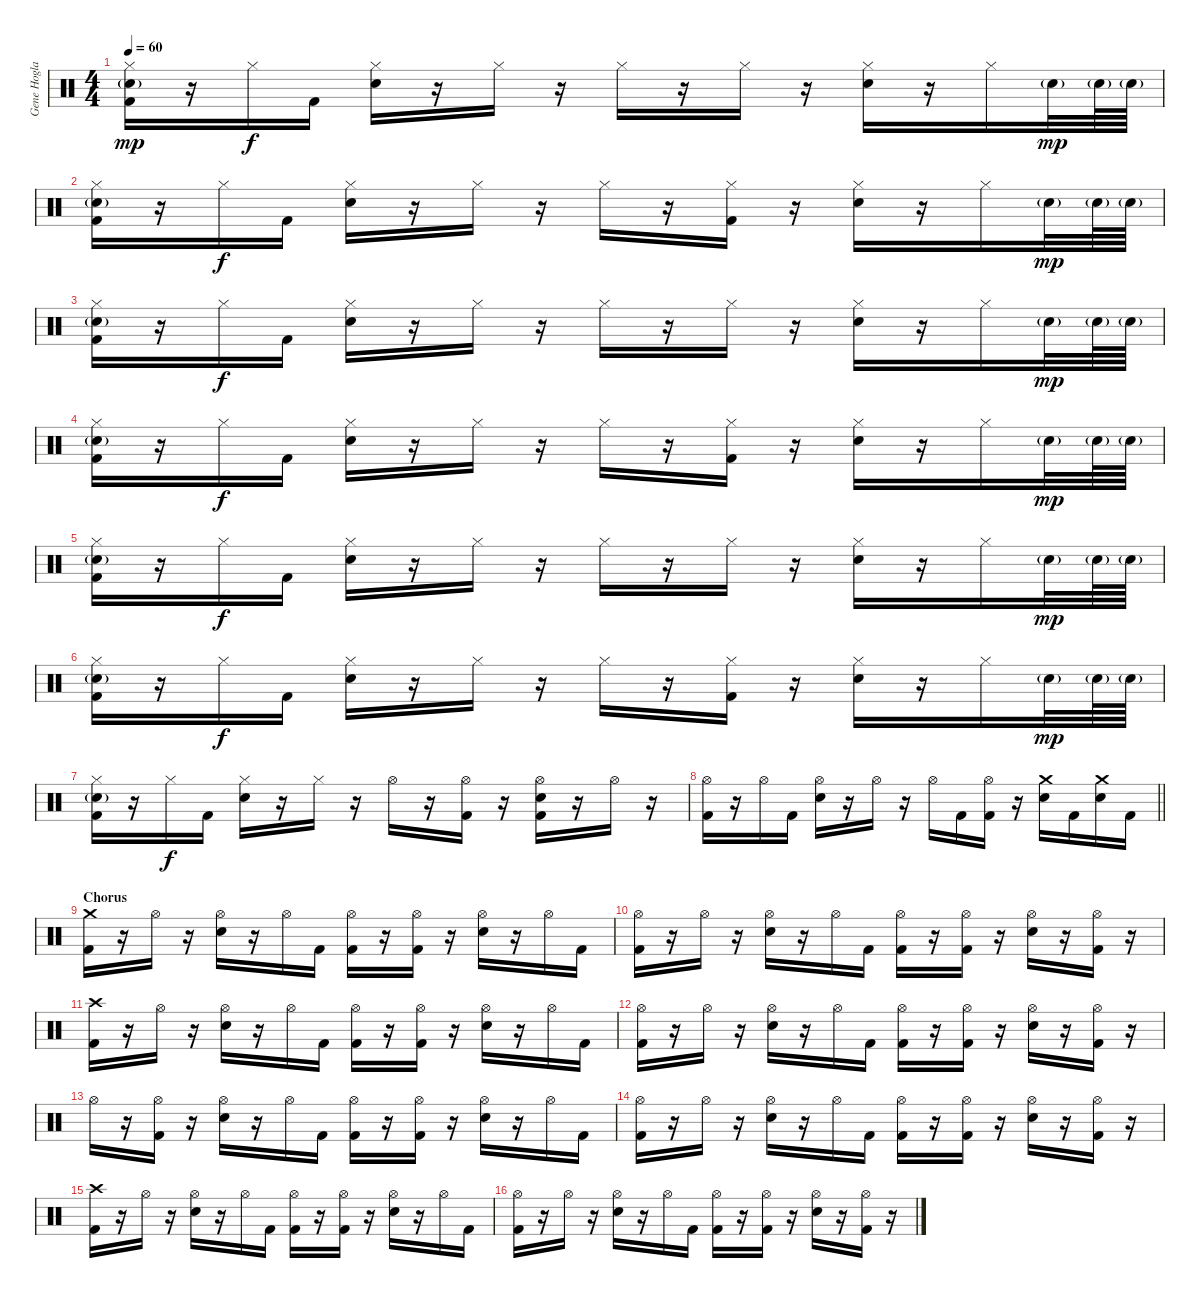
\track ("Gene Hoglan" "Gene Hogla") {instrument percussion}
\staff {score}
\articulation defaults
\ts (4 4)
\tempo 60
\clef neutral
\ks c
("Hi-Hat (closed)" "Snare (hit) 2"{g} "Kick (hit) 2").16{dy mp} r.16 "Hi-Hat (closed)".16{dy f} "Kick (hit) 2".16 ("Hi-Hat (closed)" "Snare (hit) 2").16 r.16 "Hi-Hat (closed)".16 r.16 "Hi-Hat (closed)".16 r.16 "Hi-Hat (closed)".16 r.16 ("Hi-Hat (closed)" "Snare (hit) 2").16 r.16 "Hi-Hat (closed)".16 "Snare (hit) 2"{g}.32{dy mp} "Snare (hit) 2"{g}.64 "Snare (hit) 2"{g}.64 |
("Hi-Hat (closed)" "Snare (hit) 2"{g} "Kick (hit) 2").16 r.16 "Hi-Hat (closed)".16{dy f} "Kick (hit) 2".16 ("Hi-Hat (closed)" "Snare (hit) 2").16 r.16 "Hi-Hat (closed)".16 r.16 "Hi-Hat (closed)".16 r.16 ("Hi-Hat (closed)" "Kick (hit) 2").16 r.16 ("Hi-Hat (closed)" "Snare (hit) 2").16 r.16 "Hi-Hat (closed)".16 "Snare (hit) 2"{g}.32{dy mp} "Snare (hit) 2"{g}.64 "Snare (hit) 2"{g}.64 |
("Hi-Hat (closed)" "Snare (hit) 2"{g} "Kick (hit) 2").16 r.16 "Hi-Hat (closed)".16{dy f} "Kick (hit) 2".16 ("Hi-Hat (closed)" "Snare (hit) 2").16 r.16 "Hi-Hat (closed)".16 r.16 "Hi-Hat (closed)".16 r.16 "Hi-Hat (closed)".16 r.16 ("Hi-Hat (closed)" "Snare (hit) 2").16 r.16 "Hi-Hat (closed)".16 "Snare (hit) 2"{g}.32{dy mp} "Snare (hit) 2"{g}.64 "Snare (hit) 2"{g}.64 |
("Hi-Hat (closed)" "Snare (hit) 2"{g} "Kick (hit) 2").16 r.16 "Hi-Hat (closed)".16{dy f} "Kick (hit) 2".16 ("Hi-Hat (closed)" "Snare (hit) 2").16 r.16 "Hi-Hat (closed)".16 r.16 "Hi-Hat (closed)".16 r.16 ("Hi-Hat (closed)" "Kick (hit) 2").16 r.16 ("Hi-Hat (closed)" "Snare (hit) 2").16 r.16 "Hi-Hat (closed)".16 "Snare (hit) 2"{g}.32{dy mp} "Snare (hit) 2"{g}.64 "Snare (hit) 2"{g}.64 |
("Hi-Hat (closed)" "Snare (hit) 2"{g} "Kick (hit) 2").16 r.16 "Hi-Hat (closed)".16{dy f} "Kick (hit) 2".16 ("Hi-Hat (closed)" "Snare (hit) 2").16 r.16 "Hi-Hat (closed)".16 r.16 "Hi-Hat (closed)".16 r.16 "Hi-Hat (closed)".16 r.16 ("Hi-Hat (closed)" "Snare (hit) 2").16 r.16 "Hi-Hat (closed)".16 "Snare (hit) 2"{g}.32{dy mp} "Snare (hit) 2"{g}.64 "Snare (hit) 2"{g}.64 |
("Hi-Hat (closed)" "Snare (hit) 2"{g} "Kick (hit) 2").16 r.16 "Hi-Hat (closed)".16{dy f} "Kick (hit) 2".16 ("Hi-Hat (closed)" "Snare (hit) 2").16 r.16 "Hi-Hat (closed)".16 r.16 "Hi-Hat (closed)".16 r.16 ("Hi-Hat (closed)" "Kick (hit) 2").16 r.16 ("Hi-Hat (closed)" "Snare (hit) 2").16 r.16 "Hi-Hat (closed)".16 "Snare (hit) 2"{g}.32{dy mp} "Snare (hit) 2"{g}.64 "Snare (hit) 2"{g}.64 |
("Hi-Hat (closed)" "Snare (hit) 2"{g} "Kick (hit) 2").16 r.16 "Hi-Hat (closed)".16{dy f} "Kick (hit) 2".16 ("Hi-Hat (closed)" "Snare (hit) 2").16 r.16 "Hi-Hat (closed)".16 r.16 "Hi-Hat (open)".16 r.16 ("Hi-Hat (open)" "Kick (hit) 2").16 r.16 ("Hi-Hat (open)" "Snare (hit) 2" "Kick (hit) 2").16 r.16 "Hi-Hat (open)".16 r.16 |
\barLineRight lightlight
("Hi-Hat (open)" "Kick (hit) 2").16 r.16 "Hi-Hat (open)".16 "Kick (hit) 2".16 ("Hi-Hat (open)" "Snare (hit) 2").16 r.16 "Hi-Hat (open)".16 r.16 "Hi-Hat (open)".16 "Kick (hit) 2".16 ("Hi-Hat (open)" "Kick (hit) 2").16 r.16 ("Crash medium (hit)" "Snare (hit) 2").16 "Kick (hit) 2".16 ("Crash medium (hit)" "Snare (hit) 2").16 "Kick (hit) 2".16 |
\section ("" "Chorus")
("Crash medium (hit)" "Kick (hit) 2").16 r.16 "Hi-Hat (open)".16 r.16 ("Hi-Hat (open)" "Snare (hit) 2").16 r.16 "Hi-Hat (open)".16 "Kick (hit) 2".16 ("Hi-Hat (open)" "Kick (hit) 2").16 r.16 ("Hi-Hat (open)" "Kick (hit) 2").16 r.16 ("Hi-Hat (open)" "Snare (hit) 2").16 r.16 "Hi-Hat (open)".16 "Kick (hit) 2".16 |
("Hi-Hat (open)" "Kick (hit) 2").16 r.16 "Hi-Hat (open)".16 r.16 ("Hi-Hat (open)" "Snare (hit) 2").16 r.16 "Hi-Hat (open)".16 "Kick (hit) 2".16 ("Hi-Hat (open)" "Kick (hit) 2").16 r.16 ("Hi-Hat (open)" "Kick (hit) 2").16 r.16 ("Hi-Hat (open)" "Snare (hit) 2").16 r.16 ("Hi-Hat (open)" "Kick (hit) 2").16 r.16 |
("Crash high (hit)" "Kick (hit) 2").16 r.16 "Hi-Hat (open)".16 r.16 ("Hi-Hat (open)" "Snare (hit) 2").16 r.16 "Hi-Hat (open)".16 "Kick (hit) 2".16 ("Hi-Hat (open)" "Kick (hit) 2").16 r.16 ("Hi-Hat (open)" "Kick (hit) 2").16 r.16 ("Hi-Hat (open)" "Snare (hit) 2").16 r.16 "Hi-Hat (open)".16 "Kick (hit) 2".16 |
("Hi-Hat (open)" "Kick (hit) 2").16 r.16 "Hi-Hat (open)".16 r.16 ("Hi-Hat (open)" "Snare (hit) 2").16 r.16 "Hi-Hat (open)".16 "Kick (hit) 2".16 ("Hi-Hat (open)" "Kick (hit) 2").16 r.16 ("Hi-Hat (open)" "Kick (hit) 2").16 r.16 ("Hi-Hat (open)" "Snare (hit) 2").16 r.16 ("Hi-Hat (open)" "Kick (hit) 2").16 r.16 |
"Hi-Hat (open)".16 r.16 ("Hi-Hat (open)" "Kick (hit) 2").16 r.16 ("Hi-Hat (open)" "Snare (hit) 2").16 r.16 "Hi-Hat (open)".16 "Kick (hit) 2".16 ("Hi-Hat (open)" "Kick (hit) 2").16 r.16 ("Hi-Hat (open)" "Kick (hit) 2").16 r.16 ("Hi-Hat (open)" "Snare (hit) 2").16 r.16 "Hi-Hat (open)".16 "Kick (hit) 2".16 |
("Hi-Hat (open)" "Kick (hit) 2").16 r.16 "Hi-Hat (open)".16 r.16 ("Hi-Hat (open)" "Snare (hit) 2").16 r.16 "Hi-Hat (open)".16 "Kick (hit) 2".16 ("Hi-Hat (open)" "Kick (hit) 2").16 r.16 ("Hi-Hat (open)" "Kick (hit) 2").16 r.16 ("Hi-Hat (open)" "Snare (hit) 2").16 r.16 ("Hi-Hat (open)" "Kick (hit) 2").16 r.16 |
("Crash high (hit)" "Kick (hit) 2").16 r.16 "Hi-Hat (open)".16 r.16 ("Hi-Hat (open)" "Snare (hit) 2").16 r.16 "Hi-Hat (open)".16 "Kick (hit) 2".16 ("Hi-Hat (open)" "Kick (hit) 2").16 r.16 ("Hi-Hat (open)" "Kick (hit) 2").16 r.16 ("Hi-Hat (open)" "Snare (hit) 2").16 r.16 "Hi-Hat (open)".16 "Kick (hit) 2".16 |
("Hi-Hat (open)" "Kick (hit) 2").16 r.16 "Hi-Hat (open)".16 r.16 ("Hi-Hat (open)" "Snare (hit) 2").16 r.16 "Hi-Hat (open)".16 "Kick (hit) 2".16 ("Hi-Hat (open)" "Kick (hit) 2").16 r.16 ("Hi-Hat (open)" "Kick (hit) 2").16 r.16 ("Hi-Hat (open)" "Snare (hit) 2").16 r.16 ("Hi-Hat (open)" "Kick (hit) 2").16 r.16
